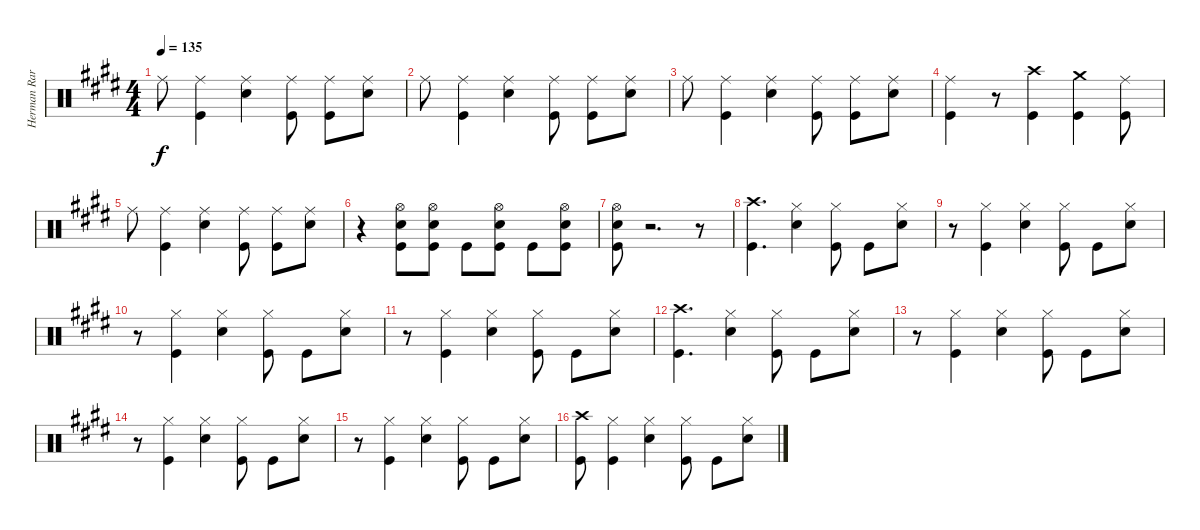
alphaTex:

\track ("Herman Rarebell Drums" "Herman Rar") {instrument percussion}
\staff {score}
\articulation defaults
\ts (4 4)
\tempo 135
\clef neutral
\ks e "Ride (middle)".8{dy f}
("Ride (middle)" "Kick (hit)").4 ("Ride (middle)" "Snare (hit) 2").4 ("Ride (middle)" "Kick (hit)").8 ("Ride (middle)" "Kick (hit)").8 ("Ride (middle)" "Snare (hit) 2").8 |
"Ride (middle)".8 ("Ride (middle)" "Kick (hit)").4 ("Ride (middle)" "Snare (hit) 2").4 ("Ride (middle)" "Kick (hit)").8 ("Ride (middle)" "Kick (hit)").8 ("Ride (middle)" "Snare (hit) 2").8 |
"Ride (middle)".8 ("Ride (middle)" "Kick (hit)").4 ("Ride (middle)" "Snare (hit) 2").4 ("Ride (middle)" "Kick (hit)").8 ("Ride (middle)" "Kick (hit)").8 ("Ride (middle)" "Snare (hit) 2").8 |
("Ride (middle)" "Kick (hit)").4 r.8 ("Crash high (hit)" "Kick (hit)").4 ("Crash medium (hit)" "Kick (hit)").4 ("Ride (middle)" "Kick (hit)").8 |
"Ride (middle)".8 ("Ride (middle)" "Kick (hit)").4 ("Ride (middle)" "Snare (hit) 2").4 ("Ride (middle)" "Kick (hit)").8 ("Ride (middle)" "Kick (hit)").8 ("Ride (middle)" "Snare (hit) 2").8 |
r.4 ("Hi-Hat (open)" "Snare (hit) 2" "Kick (hit)").8 ("Hi-Hat (open)" "Snare (hit) 2" "Kick (hit)").8 "Kick (hit)".8 ("Hi-Hat (open)" "Snare (hit) 2" "Kick (hit)").8 "Kick (hit)".8 ("Hi-Hat (open)" "Snare (hit) 2" "Kick (hit)").8 |
("Hi-Hat (open)" "Snare (hit) 2" "Kick (hit)").8 r.2{d} r.8 |
("Crash high (hit)" "Kick (hit)").4{d} ("Hi-Hat (closed)" "Snare (hit) 2").4 ("Hi-Hat (closed)" "Kick (hit)").8 "Kick (hit)".8 ("Hi-Hat (closed)" "Snare (hit) 2").8 |
r.8 ("Hi-Hat (closed)" "Kick (hit)").4 ("Hi-Hat (closed)" "Snare (hit) 2").4 ("Hi-Hat (closed)" "Kick (hit)").8 "Kick (hit)".8 ("Hi-Hat (closed)" "Snare (hit) 2").8 |
r.8 ("Hi-Hat (closed)" "Kick (hit)").4 ("Hi-Hat (closed)" "Snare (hit) 2").4 ("Hi-Hat (closed)" "Kick (hit)").8 "Kick (hit)".8 ("Hi-Hat (closed)" "Snare (hit) 2").8 |
r.8 ("Hi-Hat (closed)" "Kick (hit)").4 ("Hi-Hat (closed)" "Snare (hit) 2").4 ("Hi-Hat (closed)" "Kick (hit)").8 "Kick (hit)".8 ("Hi-Hat (closed)" "Snare (hit) 2").8 |
("Crash high (hit)" "Kick (hit)").4{d} ("Hi-Hat (closed)" "Snare (hit) 2").4 ("Hi-Hat (closed)" "Kick (hit)").8 "Kick (hit)".8 ("Hi-Hat (closed)" "Snare (hit) 2").8 |
r.8 ("Hi-Hat (closed)" "Kick (hit)").4 ("Hi-Hat (closed)" "Snare (hit) 2").4 ("Hi-Hat (closed)" "Kick (hit)").8 "Kick (hit)".8 ("Hi-Hat (closed)" "Snare (hit) 2").8 |
r.8 ("Hi-Hat (closed)" "Kick (hit)").4 ("Hi-Hat (closed)" "Snare (hit) 2").4 ("Hi-Hat (closed)" "Kick (hit)").8 "Kick (hit)".8 ("Hi-Hat (closed)" "Snare (hit) 2").8 |
r.8 ("Hi-Hat (closed)" "Kick (hit)").4 ("Hi-Hat (closed)" "Snare (hit) 2").4 ("Hi-Hat (closed)" "Kick (hit)").8 "Kick (hit)".8 ("Hi-Hat (closed)" "Snare (hit) 2").8 |
("Crash high (hit)" "Kick (hit)").8 ("Hi-Hat (closed)" "Kick (hit)").4 ("Hi-Hat (closed)" "Snare (hit) 2").4 ("Hi-Hat (closed)" "Kick (hit)").8 "Kick (hit)".8 ("Hi-Hat (closed)" "Snare (hit) 2").8
